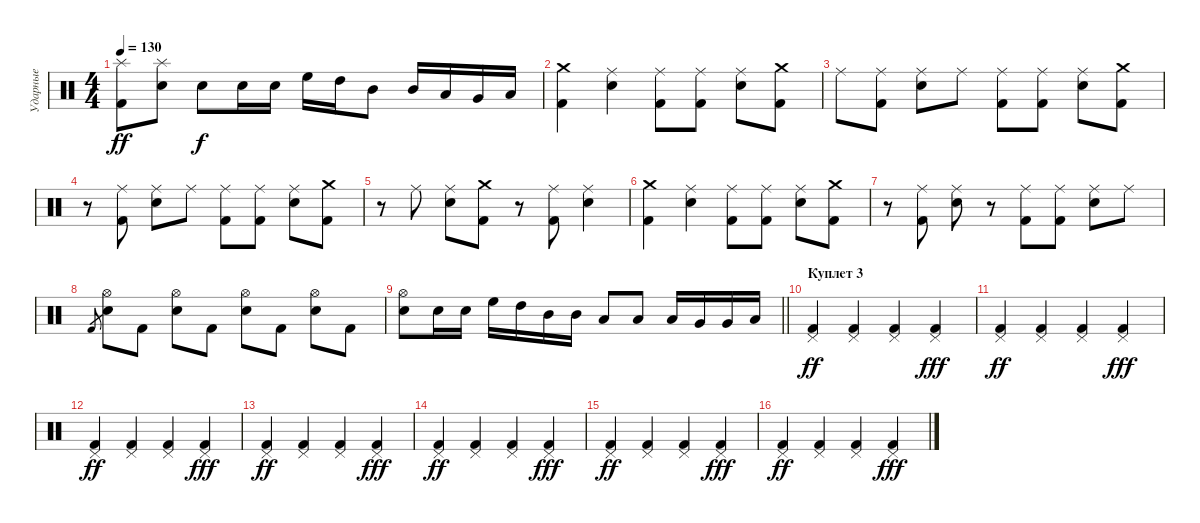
\track ("Ударные" "Ударные") {instrument percussion}
\staff {score}
\articulation defaults
\ts (4 4)
\tempo 130
\clef neutral
\ks c
("Kick (hit) 2" "Splash (hit)").8{dy ff} ("Electric Snare (hit)" "Splash (hit)").8 "Electric Snare (hit)".8{dy f} "Electric Snare (hit)".16 "Electric Snare (hit)".16 "High Floor Tom (hit)".16 "High Tom (hit)".16 "Mid Tom (hit)".8 "Mid Tom (hit)".16 "Low Tom (hit)".16 "Very Low Tom (hit)".16 "Low Floor Tom (hit)".16 |
("Kick (hit) 2" "Crash medium (hit)").4 ("Electric Snare (hit)" "Ride (middle)").4 ("Kick (hit) 2" "Ride (middle)").8 ("Kick (hit) 2" "Ride (middle)").8 ("Electric Snare (hit)" "Ride (middle)").8 ("Kick (hit) 2" "Crash medium (hit)").8 |
"Ride (middle)".8 ("Kick (hit) 2" "Ride (middle)").8 ("Electric Snare (hit)" "Ride (middle)").8 "Ride (middle)".8 ("Kick (hit) 2" "Ride (middle)").8 ("Kick (hit) 2" "Ride (middle)").8 ("Electric Snare (hit)" "Ride (middle)").8 ("Kick (hit) 2" "Crash medium (hit)").8 |
r.8 ("Kick (hit) 2" "Ride (middle)").8 ("Electric Snare (hit)" "Ride (middle)").8 "Ride (middle)".8 ("Kick (hit) 2" "Ride (middle)").8 ("Kick (hit) 2" "Ride (middle)").8 ("Electric Snare (hit)" "Ride (middle)").8 ("Kick (hit) 2" "Crash medium (hit)").8 |
r.8 "Ride (middle)".8 ("Electric Snare (hit)" "Ride (middle)").8 ("Kick (hit) 2" "Crash medium (hit)").8 r.8 ("Kick (hit) 2" "Ride (middle)").8 ("Electric Snare (hit)" "Ride (middle)").4 |
("Kick (hit) 2" "Crash medium (hit)").4 ("Electric Snare (hit)" "Ride (middle)").4 ("Kick (hit) 2" "Ride (middle)").8 ("Kick (hit) 2" "Ride (middle)").8 ("Electric Snare (hit)" "Ride (middle)").8 ("Kick (hit) 2" "Crash medium (hit)").8 |
r.8 ("Kick (hit) 2" "Ride (middle)").8 ("Electric Snare (hit)" "Ride (middle)").8 r.8 ("Kick (hit) 2" "Ride (middle)").8 ("Kick (hit) 2" "Ride (middle)").8 ("Electric Snare (hit)" "Ride (middle)").8 "Ride (middle)".8 |
"Kick (hit) 2".8{gr} ("Electric Snare (hit)" "Hi-Hat (open)").8 "Kick (hit) 2".8 ("Electric Snare (hit)" "Hi-Hat (open)").8 "Kick (hit) 2".8 ("Electric Snare (hit)" "Hi-Hat (open)").8 "Kick (hit) 2".8 ("Electric Snare (hit)" "Hi-Hat (open)").8 "Kick (hit) 2".8 |
\barLineRight lightlight
("Electric Snare (hit)" "Hi-Hat (open)").8 "Electric Snare (hit)".16 "Electric Snare (hit)".16 "High Floor Tom (hit)".16 "High Tom (hit)".16 "Mid Tom (hit)".16 "Mid Tom (hit)".16 "Low Tom (hit)".8 "Low Tom (hit)".8 "Low Tom (hit)".16 "Very Low Tom (hit)".16 "Very Low Tom (hit)".16 "Low Floor Tom (hit)".16 |
\section ("" "Куплет 3")
("Kick (hit) 2" "Pedal Hi-Hat (hit)").4{dy ff} ("Kick (hit) 2" "Pedal Hi-Hat (hit)").4 ("Kick (hit) 2" "Pedal Hi-Hat (hit)").4 ("Kick (hit) 2" "Pedal Hi-Hat (hit)").4{dy fff} |
("Kick (hit) 2" "Pedal Hi-Hat (hit)").4{dy ff} ("Kick (hit) 2" "Pedal Hi-Hat (hit)").4 ("Kick (hit) 2" "Pedal Hi-Hat (hit)").4 ("Kick (hit) 2" "Pedal Hi-Hat (hit)").4{dy fff} |
("Kick (hit) 2" "Pedal Hi-Hat (hit)").4{dy ff} ("Kick (hit) 2" "Pedal Hi-Hat (hit)").4 ("Kick (hit) 2" "Pedal Hi-Hat (hit)").4 ("Kick (hit) 2" "Pedal Hi-Hat (hit)").4{dy fff} |
("Kick (hit) 2" "Pedal Hi-Hat (hit)").4{dy ff} ("Kick (hit) 2" "Pedal Hi-Hat (hit)").4 ("Kick (hit) 2" "Pedal Hi-Hat (hit)").4 ("Kick (hit) 2" "Pedal Hi-Hat (hit)").4{dy fff} |
("Kick (hit) 2" "Pedal Hi-Hat (hit)").4{dy ff} ("Kick (hit) 2" "Pedal Hi-Hat (hit)").4 ("Kick (hit) 2" "Pedal Hi-Hat (hit)").4 ("Kick (hit) 2" "Pedal Hi-Hat (hit)").4{dy fff} |
("Kick (hit) 2" "Pedal Hi-Hat (hit)").4{dy ff} ("Kick (hit) 2" "Pedal Hi-Hat (hit)").4 ("Kick (hit) 2" "Pedal Hi-Hat (hit)").4 ("Kick (hit) 2" "Pedal Hi-Hat (hit)").4{dy fff} |
("Kick (hit) 2" "Pedal Hi-Hat (hit)").4{dy ff} ("Kick (hit) 2" "Pedal Hi-Hat (hit)").4 ("Kick (hit) 2" "Pedal Hi-Hat (hit)").4 ("Kick (hit) 2" "Pedal Hi-Hat (hit)").4{dy fff}
